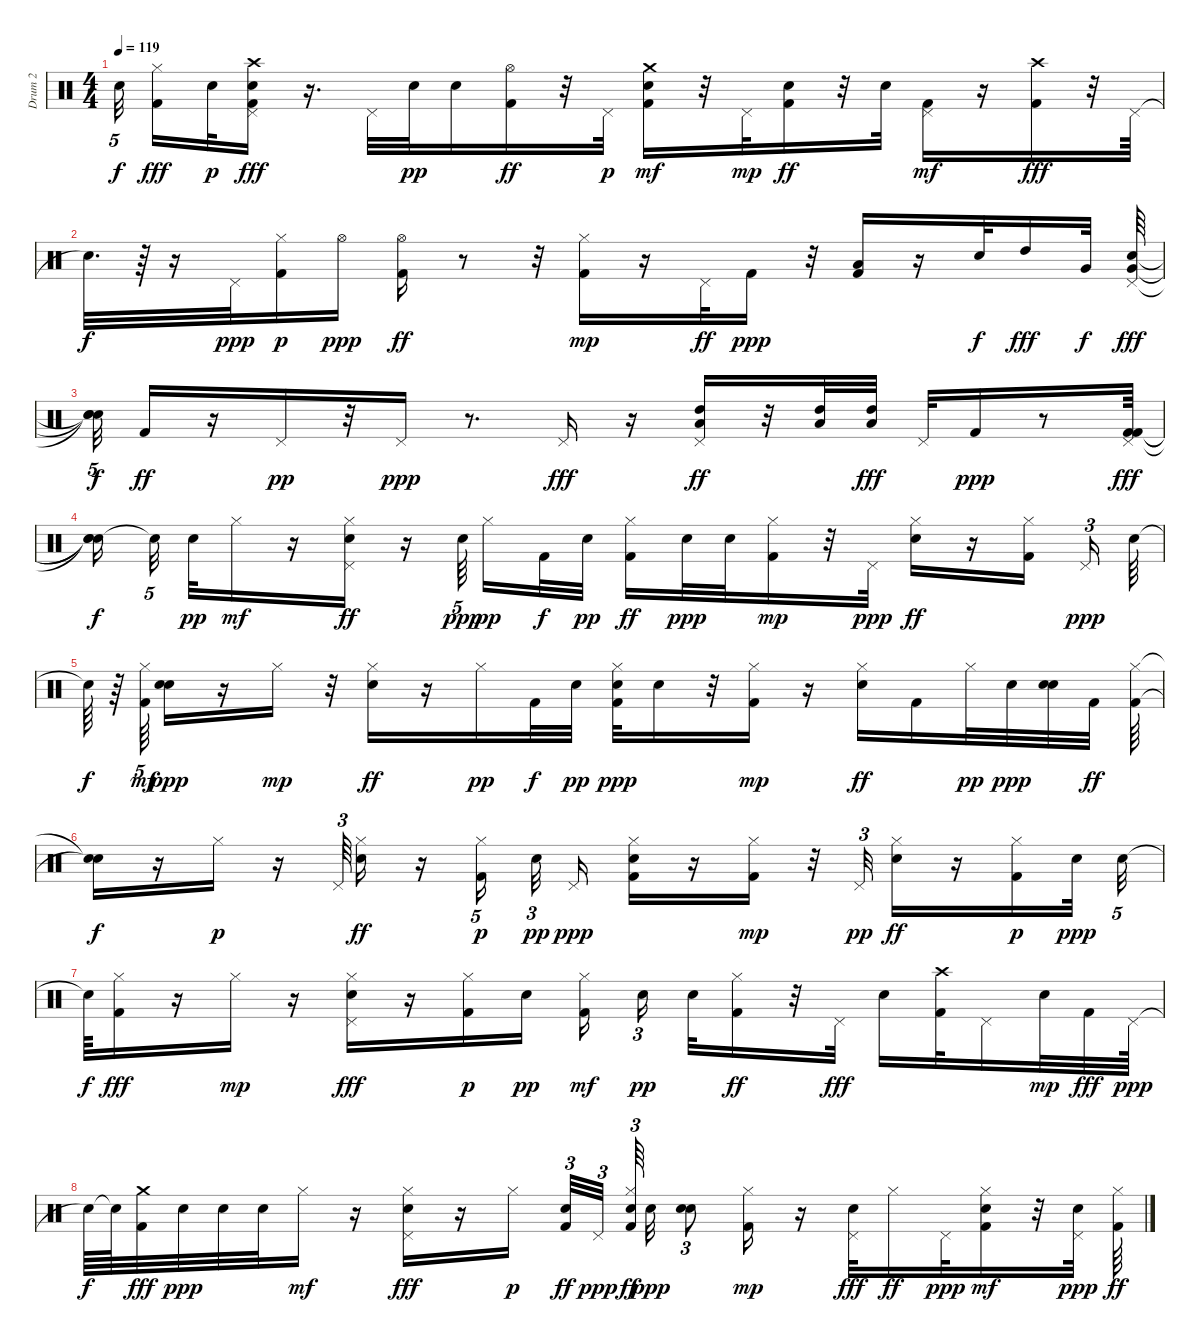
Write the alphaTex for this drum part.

\track ("Drum 2                          " "Drum 2    ") {instrument percussion}
\staff {score}
\articulation defaults
\ts (4 4)
\tempo 119
\clef neutral
\ks c "Snare (hit)"{t}.32{tu (5 4) dy f beam splitsecondary}
("Hi-Hat (closed)" "Kick (hit) 2").16{dy fff} "Snare (hit) 2".32{dy p} ("Snare (hit) 2" "Pedal Hi-Hat (hit)" "Crash high (hit)" "Kick (hit) 2").16{dy fff} r.16{d} "Pedal Hi-Hat (hit)".32 "Snare (hit) 2".32{dy pp} "Snare (hit) 2".16 ("Kick (hit) 2" "Hi-Hat (open)").16{dy ff} r.32 "Pedal Hi-Hat (hit)".32{dy p} ("Electric Snare (hit)" "Crash medium (hit)" "Kick (hit) 2").16{dy mf} r.32 "Pedal Hi-Hat (hit)".32{dy mp} ("Kick (hit) 2" "Snare (hit) 2").16{dy ff} r.32 "Electric Snare (hit)".32 ("Pedal Hi-Hat (hit)" "Kick (hit) 2").16{dy mf} r.16 ("Kick (hit) 2" "Crash high (hit)").16{dy fff} r.32 "Pedal Hi-Hat (hit)".64 |
"Snare (hit)"{t}.32{d dy f} r.64 r.16 "Pedal Hi-Hat (hit)".32{dy ppp} ("Hi-Hat (closed)" "Kick (hit) 2").16{dy p} "Hi-Hat (open)".16{dy ppp} ("Kick (hit) 2" "Hi-Hat (open)").16{dy ff} r.8 r.32 ("Kick (hit) 2" "Hi-Hat (closed)").16{dy mp} r.16 "Pedal Hi-Hat (hit)".32{dy ff} "Kick (hit) 2".16{dy ppp} r.32 ("Kick (hit) 2" "Low Floor Tom (hit)").16 r.16 "Electric Snare (hit)".32{dy f} "High Tom (hit)".16{dy fff} "Very Low Tom (hit)".32{dy f} ("Pedal Hi-Hat (hit)" "Snare (hit) 2" "Very Low Tom (hit)").64{dy fff} |
("Snare (hit)"{t} "Snare (hit)"{t} "Snare (hit)"{t}).32{tu (5 4) dy f} "Kick (hit) 2".16{dy ff} r.16 "Pedal Hi-Hat (hit)".16{dy pp} r.32 "Pedal Hi-Hat (hit)".16{dy ppp} r.8{d} "Pedal Hi-Hat (hit)".16{dy fff} r.16 ("Pedal Hi-Hat (hit)" "Low Floor Tom (hit)" "High Tom (hit)").16{dy ff} r.32 ("Low Floor Tom (hit)" "High Tom (hit)").32 ("High Tom (hit)" "Low Floor Tom (hit)").32{dy fff} "Pedal Hi-Hat (hit)".32 "Kick (hit) 2".16{dy ppp} r.8 ("Kick (hit) 2" "Pedal Hi-Hat (hit)" "Kick (hit) 2").64{dy fff} |
("Snare (hit)"{t} "Snare (hit)"{t} "Snare (hit)"{t}).16{dy f beam splitsecondary} "Snare (hit)"{t}.32{tu (5 4) beam splitsecondary} "Snare (hit) 2".32{dy pp} "Hi-Hat (closed)".16{dy mf} r.16 ("Pedal Hi-Hat (hit)" "Snare (hit) 2" "Hi-Hat (closed)").16{dy ff} r.16 "Snare (hit) 2".64{tu (5 4) dy ppp beam splitsecondary} "Hi-Hat (closed)".16{dy pp} "Kick (hit) 2".32{dy f} "Snare (hit) 2".32{dy pp} ("Kick (hit) 2" "Hi-Hat (closed)").16{dy ff} "Snare (hit) 2".32{dy ppp} "Snare (hit) 2".32 ("Kick (hit) 2" "Hi-Hat (closed)").16{dy mp} r.32 "Pedal Hi-Hat (hit)".32{dy ppp} ("Snare (hit) 2" "Hi-Hat (closed)").16{dy ff} r.16 ("Kick (hit) 2" "Hi-Hat (closed)").16{beam splitsecondary} "Pedal Hi-Hat (hit)".16{tu (3 2) dy ppp} "Snare (hit) 2".64 |
"Snare (hit)"{t}.64{dy f} r.64 ("Kick (hit) 2" "Hi-Hat (closed)").64{tu (5 4) dy mf} ("Snare (hit) 2" "Snare (hit) 2").16{dy ppp} r.16 "Hi-Hat (closed)".16{dy mp} r.32 ("Electric Snare (hit)" "Hi-Hat (closed)").16{dy ff} r.16 "Hi-Hat (closed)".16{dy pp} "Kick (hit) 2".32{dy f} "Snare (hit) 2".32{dy pp} ("Kick (hit) 2" "Hi-Hat (closed)" "Snare (hit) 2").32{dy ppp} "Snare (hit) 2".16 r.32 ("Kick (hit) 2" "Hi-Hat (closed)").16{dy mp} r.16 ("Snare (hit) 2" "Hi-Hat (closed)").16{dy ff} "Kick (hit) 2".16 "Hi-Hat (closed)".32{dy pp} "Snare (hit) 2".32{dy ppp} ("Snare (hit) 2" "Snare (hit) 2").32 "Kick (hit) 2".32{dy ff} ("Kick (hit) 2" "Hi-Hat (closed)").64 |
("Snare (hit)"{t} "Snare (hit)"{t}).16{dy f} r.16 "Hi-Hat (closed)".16{dy p} r.16 "Pedal Hi-Hat (hit)".64{tu (3 2)} ("Snare (hit) 2" "Hi-Hat (closed)").16{dy ff} r.16 ("Kick (hit) 2" "Hi-Hat (closed)").16{tu (5 4) dy p} "Snare (hit) 2".32{tu (3 2) dy pp beam splitsecondary} "Pedal Hi-Hat (hit)".16{dy ppp} ("Kick (hit) 2" "Hi-Hat (closed)" "Snare (hit) 2").16 r.16 ("Kick (hit) 2" "Hi-Hat (closed)").16{dy mp} r.32 "Pedal Hi-Hat (hit)".32{tu (3 2) dy pp} ("Snare (hit) 2" "Hi-Hat (closed)").16{dy ff} r.16 ("Kick (hit) 2" "Hi-Hat (closed)").16{dy p} "Snare (hit) 2".32{dy ppp} "Snare (hit) 2".32{tu (5 4)} |
"Snare (hit)"{t}.64{dy f} ("Kick (hit) 2" "Hi-Hat (closed)").16{dy fff} r.16 "Hi-Hat (closed)".16{dy mp} r.16 ("Pedal Hi-Hat (hit)" "Snare (hit) 2" "Hi-Hat (closed)").16{dy fff} r.16 ("Kick (hit) 2" "Hi-Hat (closed)").16{dy p} "Snare (hit) 2".16{dy pp} ("Kick (hit) 2" "Hi-Hat (closed)").16{dy mf beam splitsecondary} "Snare (hit) 2".16{tu (3 2) dy pp beam splitsecondary} "Snare (hit) 2".32 ("Kick (hit) 2" "Hi-Hat (closed)").16{dy ff} r.32 "Pedal Hi-Hat (hit)".32{dy fff} "Snare (hit) 2".16 ("Kick (hit) 2" "Crash high (hit)").32 "Pedal Hi-Hat (hit)".16 "Snare (hit) 2".32{dy mp} "Kick (hit) 2".32{dy fff} "Pedal Hi-Hat (hit)".64{dy ppp} |
"Snare (hit)"{t}.64{dy f} "Snare (hit)"{t}.64 ("Crash medium (hit)" "Kick (hit) 2").32{dy fff} "Snare (hit) 2".32{dy ppp} "Snare (hit) 2".32 "Snare (hit) 2".32 "Hi-Hat (closed)".16{dy mf} r.16 ("Pedal Hi-Hat (hit)" "Snare (hit) 2" "Hi-Hat (closed)").16{dy fff} r.16 "Hi-Hat (closed)".16{dy p beam splitsecondary} ("Snare (hit) 2" "Kick (hit) 2").32{tu (3 2) dy ff} "Pedal Hi-Hat (hit)".32{tu (3 2) dy ppp} ("Snare (hit) 2" "Kick (hit) 2" "Hi-Hat (closed)").64{tu (3 2) dy ff beam splitsecondary} "Snare (hit) 2".32{dy ppp} ("Snare (hit) 2" "Snare (hit) 2").8{tu (3 2)} ("Kick (hit) 2" "Hi-Hat (closed)").16{dy mp} r.16 ("Pedal Hi-Hat (hit)" "Snare (hit) 2").32{dy fff} "Hi-Hat (closed)".16{dy ff} "Pedal Hi-Hat (hit)".32{dy ppp} ("Snare (hit) 2" "Kick (hit) 2" "Hi-Hat (closed)").16{dy mf} r.32 ("Pedal Hi-Hat (hit)" "Snare (hit) 2").32{dy ppp} ("Kick (hit) 2" "Hi-Hat (closed)").64{dy ff}
